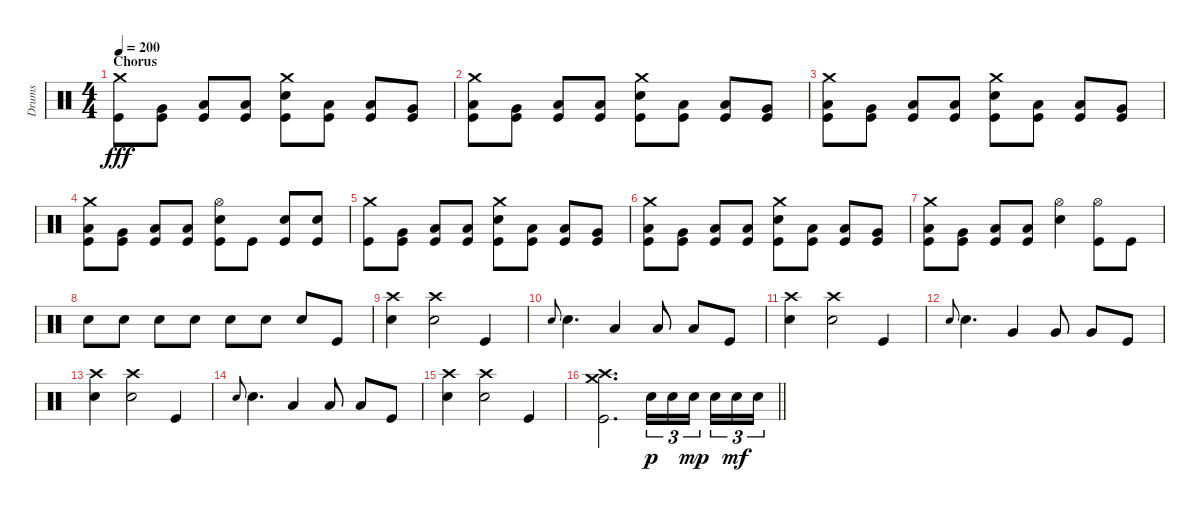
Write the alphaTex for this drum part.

\track ("Drums" "Drums") {instrument percussion}
\staff {score}
\articulation defaults
\ts (4 4)
\section ("" "Chorus")
\tempo 200
\clef neutral
\ks c
("Crash medium (hit)" "Kick (hit)").8{dy fff} ("Very Low Tom (hit)" "Kick (hit)").8 ("Low Floor Tom (hit)" "Kick (hit)").8 ("Low Floor Tom (hit)" "Kick (hit)").8 ("Crash medium (hit)" "Snare (hit) 2" "Kick (hit)").8 ("Low Floor Tom (hit)" "Kick (hit)").8 ("Low Floor Tom (hit)" "Kick (hit)").8 ("Very Low Tom (hit)" "Kick (hit)").8 |
("Crash medium (hit)" "Low Floor Tom (hit)" "Kick (hit)").8 ("Very Low Tom (hit)" "Kick (hit)").8 ("Low Floor Tom (hit)" "Kick (hit)").8 ("Low Floor Tom (hit)" "Kick (hit)").8 ("Crash medium (hit)" "Snare (hit) 2" "Kick (hit)").8 ("Low Floor Tom (hit)" "Kick (hit)").8 ("Low Floor Tom (hit)" "Kick (hit)").8 ("Very Low Tom (hit)" "Kick (hit)").8 |
("Crash medium (hit)" "Low Floor Tom (hit)" "Kick (hit)").8 ("Very Low Tom (hit)" "Kick (hit)").8 ("Low Floor Tom (hit)" "Kick (hit)").8 ("Low Floor Tom (hit)" "Kick (hit)").8 ("Crash medium (hit)" "Snare (hit) 2" "Kick (hit)").8 ("Low Floor Tom (hit)" "Kick (hit)").8 ("Low Floor Tom (hit)" "Kick (hit)").8 ("Very Low Tom (hit)" "Kick (hit)").8 |
("Crash medium (hit)" "Low Floor Tom (hit)" "Kick (hit)").8 ("Very Low Tom (hit)" "Kick (hit)").8 ("Low Floor Tom (hit)" "Kick (hit)").8 ("Low Floor Tom (hit)" "Kick (hit)").8 ("Hi-Hat (open)" "Snare (hit) 2" "Kick (hit)").8 "Kick (hit)".8 ("Snare (hit) 2" "Kick (hit)").8 ("Snare (hit) 2" "Kick (hit)").8 |
("Crash medium (hit)" "Kick (hit)").8 ("Very Low Tom (hit)" "Kick (hit)").8 ("Low Floor Tom (hit)" "Kick (hit)").8 ("Low Floor Tom (hit)" "Kick (hit)").8 ("Crash medium (hit)" "Snare (hit) 2" "Kick (hit)").8 ("Low Floor Tom (hit)" "Kick (hit)").8 ("Low Floor Tom (hit)" "Kick (hit)").8 ("Very Low Tom (hit)" "Kick (hit)").8 |
("Crash medium (hit)" "Low Floor Tom (hit)" "Kick (hit)").8 ("Very Low Tom (hit)" "Kick (hit)").8 ("Low Floor Tom (hit)" "Kick (hit)").8 ("Low Floor Tom (hit)" "Kick (hit)").8 ("Crash medium (hit)" "Snare (hit) 2" "Kick (hit)").8 ("Low Floor Tom (hit)" "Kick (hit)").8 ("Low Floor Tom (hit)" "Kick (hit)").8 ("Very Low Tom (hit)" "Kick (hit)").8 |
("Crash medium (hit)" "Low Floor Tom (hit)" "Kick (hit)").8 ("Very Low Tom (hit)" "Kick (hit)").8 ("Low Floor Tom (hit)" "Kick (hit)").8 ("Low Floor Tom (hit)" "Kick (hit)").8 ("Hi-Hat (open)" "Snare (hit) 2").4 ("Hi-Hat (open)" "Kick (hit)").8 "Kick (hit)".8 |
"Snare (hit) 2".8 "Snare (hit) 2".8 "Snare (hit) 2".8 "Snare (hit) 2".8 "Snare (hit) 2".8 "Snare (hit) 2".8 "Snare (hit) 2".8 "Kick (hit)".8 |
("Crash high (hit)" "Snare (hit) 2").4 ("Crash high (hit)" "Snare (hit) 2").2 "Kick (hit)".4 |
"Snare (hit) 2".8{gr onbeat} "Snare (hit) 2".4{d} "Low Tom (hit)".4 "Low Tom (hit)".8 "Low Tom (hit)".8 "Kick (hit)".8 |
("Crash high (hit)" "Snare (hit) 2").4 ("Crash high (hit)" "Snare (hit) 2").2 "Kick (hit)".4 |
"Snare (hit) 2".8{gr onbeat} "Snare (hit) 2".4{d} "Very Low Tom (hit)".4 "Very Low Tom (hit)".8 "Very Low Tom (hit)".8 "Kick (hit)".8 |
("Crash high (hit)" "Snare (hit) 2").4 ("Crash high (hit)" "Snare (hit) 2").2 "Kick (hit)".4 |
"Snare (hit) 2".8{gr onbeat} "Snare (hit) 2".4{d} "Low Tom (hit)".4 "Low Tom (hit)".8 "Low Tom (hit)".8 "Kick (hit)".8 |
("Crash high (hit)" "Snare (hit) 2").4 ("Crash high (hit)" "Snare (hit) 2").2 "Kick (hit)".4 |
\barLineRight lightlight
("Crash medium (hit)" "Crash high (hit)" "Kick (hit)").2{d} "Snare (hit) 2".16{tu (3 2) dy p} "Snare (hit) 2".16{tu (3 2)} "Snare (hit) 2".16{tu (3 2) dy mp beam splitsecondary} "Snare (hit) 2".16{tu (3 2)} "Snare (hit) 2".16{tu (3 2) dy mf} "Snare (hit) 2".16{tu (3 2)}
